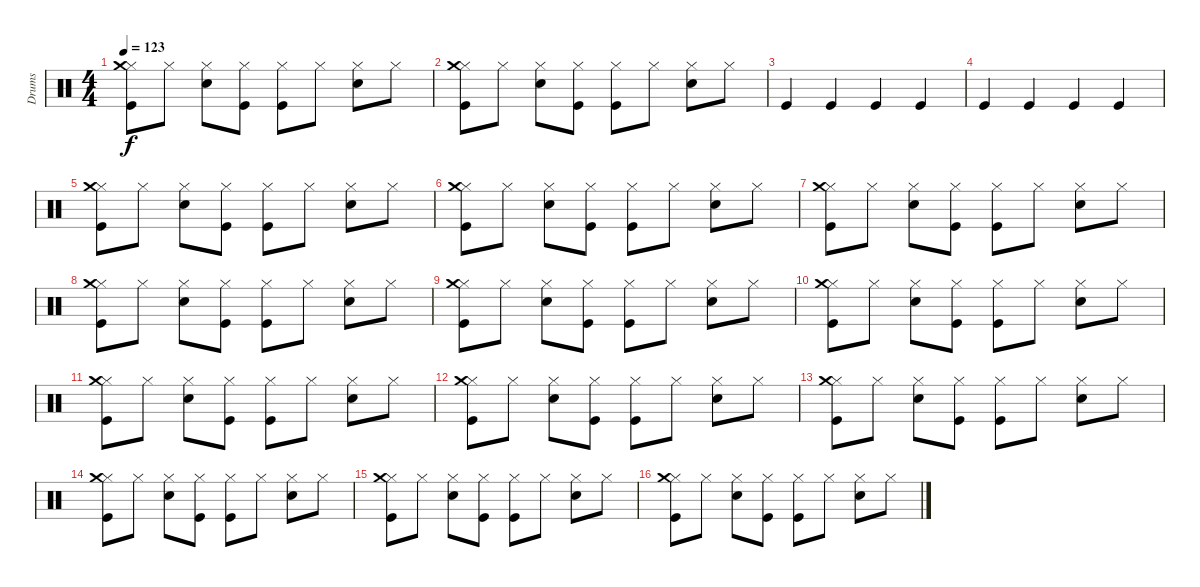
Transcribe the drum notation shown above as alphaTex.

\track ("Drums" "Drums") {instrument percussion}
\staff {score}
\articulation defaults
\ts (4 4)
\tempo 123
\clef neutral
\ks c
("Hi-Hat (closed)" "Crash medium (hit)" "Kick (hit)").8{dy f} "Hi-Hat (closed)".8 ("Hi-Hat (closed)" "Snare (hit) 2").8 ("Hi-Hat (closed)" "Kick (hit)").8 ("Hi-Hat (closed)" "Kick (hit)").8 "Hi-Hat (closed)".8 ("Hi-Hat (closed)" "Snare (hit) 2").8 "Hi-Hat (closed)".8 |
("Hi-Hat (closed)" "Crash medium (hit)" "Kick (hit)").8 "Hi-Hat (closed)".8 ("Hi-Hat (closed)" "Snare (hit) 2").8 ("Hi-Hat (closed)" "Kick (hit)").8 ("Hi-Hat (closed)" "Kick (hit)").8 "Hi-Hat (closed)".8 ("Hi-Hat (closed)" "Snare (hit) 2").8 "Hi-Hat (closed)".8 |
"Kick (hit)".4 "Kick (hit)".4 "Kick (hit)".4 "Kick (hit)".4 |
"Kick (hit)".4 "Kick (hit)".4 "Kick (hit)".4 "Kick (hit)".4 |
("Hi-Hat (closed)" "Crash medium (hit)" "Kick (hit)").8 "Hi-Hat (closed)".8 ("Hi-Hat (closed)" "Snare (hit) 2").8 ("Hi-Hat (closed)" "Kick (hit)").8 ("Hi-Hat (closed)" "Kick (hit)").8 "Hi-Hat (closed)".8 ("Hi-Hat (closed)" "Snare (hit) 2").8 "Hi-Hat (closed)".8 |
("Hi-Hat (closed)" "Crash medium (hit)" "Kick (hit)").8 "Hi-Hat (closed)".8 ("Hi-Hat (closed)" "Snare (hit) 2").8 ("Hi-Hat (closed)" "Kick (hit)").8 ("Hi-Hat (closed)" "Kick (hit)").8 "Hi-Hat (closed)".8 ("Hi-Hat (closed)" "Snare (hit) 2").8 "Hi-Hat (closed)".8 |
("Hi-Hat (closed)" "Crash medium (hit)" "Kick (hit)").8 "Hi-Hat (closed)".8 ("Hi-Hat (closed)" "Snare (hit) 2").8 ("Hi-Hat (closed)" "Kick (hit)").8 ("Hi-Hat (closed)" "Kick (hit)").8 "Hi-Hat (closed)".8 ("Hi-Hat (closed)" "Snare (hit) 2").8 "Hi-Hat (closed)".8 |
("Hi-Hat (closed)" "Crash medium (hit)" "Kick (hit)").8 "Hi-Hat (closed)".8 ("Hi-Hat (closed)" "Snare (hit) 2").8 ("Hi-Hat (closed)" "Kick (hit)").8 ("Hi-Hat (closed)" "Kick (hit)").8 "Hi-Hat (closed)".8 ("Hi-Hat (closed)" "Snare (hit) 2").8 "Hi-Hat (closed)".8 |
("Hi-Hat (closed)" "Crash medium (hit)" "Kick (hit)").8 "Hi-Hat (closed)".8 ("Hi-Hat (closed)" "Snare (hit) 2").8 ("Hi-Hat (closed)" "Kick (hit)").8 ("Hi-Hat (closed)" "Kick (hit)").8 "Hi-Hat (closed)".8 ("Hi-Hat (closed)" "Snare (hit) 2").8 "Hi-Hat (closed)".8 |
("Hi-Hat (closed)" "Crash medium (hit)" "Kick (hit)").8 "Hi-Hat (closed)".8 ("Hi-Hat (closed)" "Snare (hit) 2").8 ("Hi-Hat (closed)" "Kick (hit)").8 ("Hi-Hat (closed)" "Kick (hit)").8 "Hi-Hat (closed)".8 ("Hi-Hat (closed)" "Snare (hit) 2").8 "Hi-Hat (closed)".8 |
("Hi-Hat (closed)" "Crash medium (hit)" "Kick (hit)").8 "Hi-Hat (closed)".8 ("Hi-Hat (closed)" "Snare (hit) 2").8 ("Hi-Hat (closed)" "Kick (hit)").8 ("Hi-Hat (closed)" "Kick (hit)").8 "Hi-Hat (closed)".8 ("Hi-Hat (closed)" "Snare (hit) 2").8 "Hi-Hat (closed)".8 |
("Hi-Hat (closed)" "Crash medium (hit)" "Kick (hit)").8 "Hi-Hat (closed)".8 ("Hi-Hat (closed)" "Snare (hit) 2").8 ("Hi-Hat (closed)" "Kick (hit)").8 ("Hi-Hat (closed)" "Kick (hit)").8 "Hi-Hat (closed)".8 ("Hi-Hat (closed)" "Snare (hit) 2").8 "Hi-Hat (closed)".8 |
("Hi-Hat (closed)" "Crash medium (hit)" "Kick (hit)").8 "Hi-Hat (closed)".8 ("Hi-Hat (closed)" "Snare (hit) 2").8 ("Hi-Hat (closed)" "Kick (hit)").8 ("Hi-Hat (closed)" "Kick (hit)").8 "Hi-Hat (closed)".8 ("Hi-Hat (closed)" "Snare (hit) 2").8 "Hi-Hat (closed)".8 |
("Hi-Hat (closed)" "Crash medium (hit)" "Kick (hit)").8 "Hi-Hat (closed)".8 ("Hi-Hat (closed)" "Snare (hit) 2").8 ("Hi-Hat (closed)" "Kick (hit)").8 ("Hi-Hat (closed)" "Kick (hit)").8 "Hi-Hat (closed)".8 ("Hi-Hat (closed)" "Snare (hit) 2").8 "Hi-Hat (closed)".8 |
("Hi-Hat (closed)" "Crash medium (hit)" "Kick (hit)").8 "Hi-Hat (closed)".8 ("Hi-Hat (closed)" "Snare (hit) 2").8 ("Hi-Hat (closed)" "Kick (hit)").8 ("Hi-Hat (closed)" "Kick (hit)").8 "Hi-Hat (closed)".8 ("Hi-Hat (closed)" "Snare (hit) 2").8 "Hi-Hat (closed)".8 |
("Hi-Hat (closed)" "Crash medium (hit)" "Kick (hit)").8 "Hi-Hat (closed)".8 ("Hi-Hat (closed)" "Snare (hit) 2").8 ("Hi-Hat (closed)" "Kick (hit)").8 ("Hi-Hat (closed)" "Kick (hit)").8 "Hi-Hat (closed)".8 ("Hi-Hat (closed)" "Snare (hit) 2").8 "Hi-Hat (closed)".8
